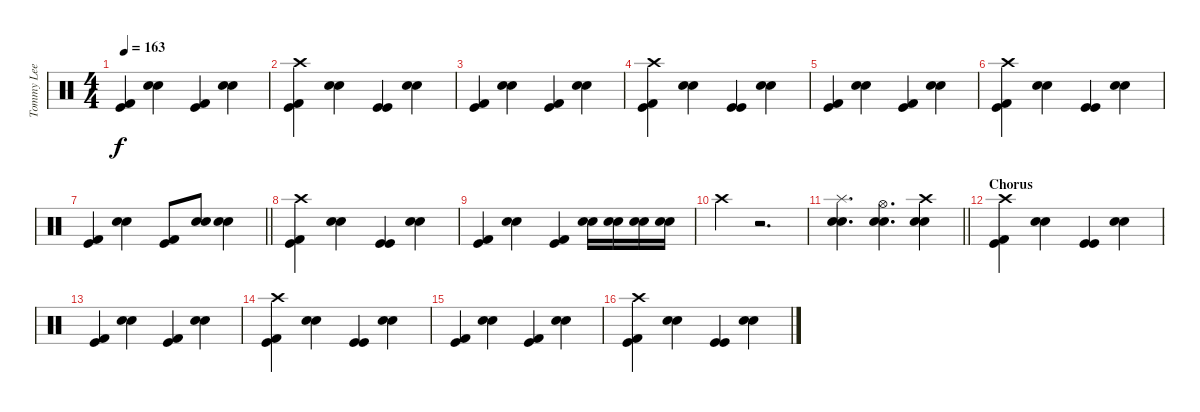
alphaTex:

\track ("Tommy Lee" "Tommy Lee") {instrument percussion}
\staff {score}
\articulation defaults
\ts (4 4)
\tempo 163
\clef neutral
\ks c
("Kick (hit) 2" "Kick (hit)").4{dy f} ("Electric Snare (hit)" "Snare (hit) 2").4 ("Kick (hit) 2" "Kick (hit)").4 ("Electric Snare (hit)" "Snare (hit) 2").4 |
("Crash high (hit)" "Kick (hit) 2" "Kick (hit)").4 ("Electric Snare (hit)" "Snare (hit) 2").4 ("Kick (hit)" "Kick (hit)").4 ("Electric Snare (hit)" "Snare (hit) 2").4 |
("Kick (hit) 2" "Kick (hit)").4 ("Electric Snare (hit)" "Snare (hit) 2").4 ("Kick (hit) 2" "Kick (hit)").4 ("Electric Snare (hit)" "Snare (hit) 2").4 |
("Crash high (hit)" "Kick (hit) 2" "Kick (hit)").4 ("Electric Snare (hit)" "Snare (hit) 2").4 ("Kick (hit)" "Kick (hit)").4 ("Electric Snare (hit)" "Snare (hit) 2").4 |
("Kick (hit) 2" "Kick (hit)").4 ("Electric Snare (hit)" "Snare (hit) 2").4 ("Kick (hit) 2" "Kick (hit)").4 ("Electric Snare (hit)" "Snare (hit) 2").4 |
("Crash high (hit)" "Kick (hit) 2" "Kick (hit)").4 ("Electric Snare (hit)" "Snare (hit) 2").4 ("Kick (hit)" "Kick (hit)").4 ("Electric Snare (hit)" "Snare (hit) 2").4 |
\barLineRight lightlight
("Kick (hit) 2" "Kick (hit)").4 ("Electric Snare (hit)" "Snare (hit) 2").4 ("Kick (hit) 2" "Kick (hit)").8 ("Electric Snare (hit)" "Snare (hit) 2").8 ("Electric Snare (hit)" "Snare (hit) 2").4 |
("Crash high (hit)" "Kick (hit) 2" "Kick (hit)").4 ("Electric Snare (hit)" "Snare (hit) 2").4 ("Kick (hit)" "Kick (hit)").4 ("Electric Snare (hit)" "Snare (hit) 2").4 |
("Kick (hit) 2" "Kick (hit)").4 ("Electric Snare (hit)" "Snare (hit) 2").4 ("Kick (hit) 2" "Kick (hit)").4 ("Electric Snare (hit)" "Snare (hit) 2").16 ("Electric Snare (hit)" "Snare (hit) 2").16 ("Electric Snare (hit)" "Snare (hit) 2").16 ("Electric Snare (hit)" "Snare (hit) 2").16 |
"Crash high (hit)".4 r.2{d} |
\barLineRight lightlight
("Splash (hit)" "Electric Snare (hit)" "Snare (hit) 2").4{d} ("Hi-Hat (open)" "Electric Snare (hit)" "Snare (hit) 2").4{d} ("Crash high (hit)" "Electric Snare (hit)" "Snare (hit) 2").4 |
\section ("" "Chorus")
("Crash high (hit)" "Kick (hit) 2" "Kick (hit)").4 ("Electric Snare (hit)" "Snare (hit) 2").4 ("Kick (hit)" "Kick (hit)").4 ("Electric Snare (hit)" "Snare (hit) 2").4 |
("Kick (hit) 2" "Kick (hit)").4 ("Electric Snare (hit)" "Snare (hit) 2").4 ("Kick (hit) 2" "Kick (hit)").4 ("Electric Snare (hit)" "Snare (hit) 2").4 |
("Crash high (hit)" "Kick (hit) 2" "Kick (hit)").4 ("Electric Snare (hit)" "Snare (hit) 2").4 ("Kick (hit)" "Kick (hit)").4 ("Electric Snare (hit)" "Snare (hit) 2").4 |
("Kick (hit) 2" "Kick (hit)").4 ("Electric Snare (hit)" "Snare (hit) 2").4 ("Kick (hit) 2" "Kick (hit)").4 ("Electric Snare (hit)" "Snare (hit) 2").4 |
("Crash high (hit)" "Kick (hit) 2" "Kick (hit)").4 ("Electric Snare (hit)" "Snare (hit) 2").4 ("Kick (hit)" "Kick (hit)").4 ("Electric Snare (hit)" "Snare (hit) 2").4
